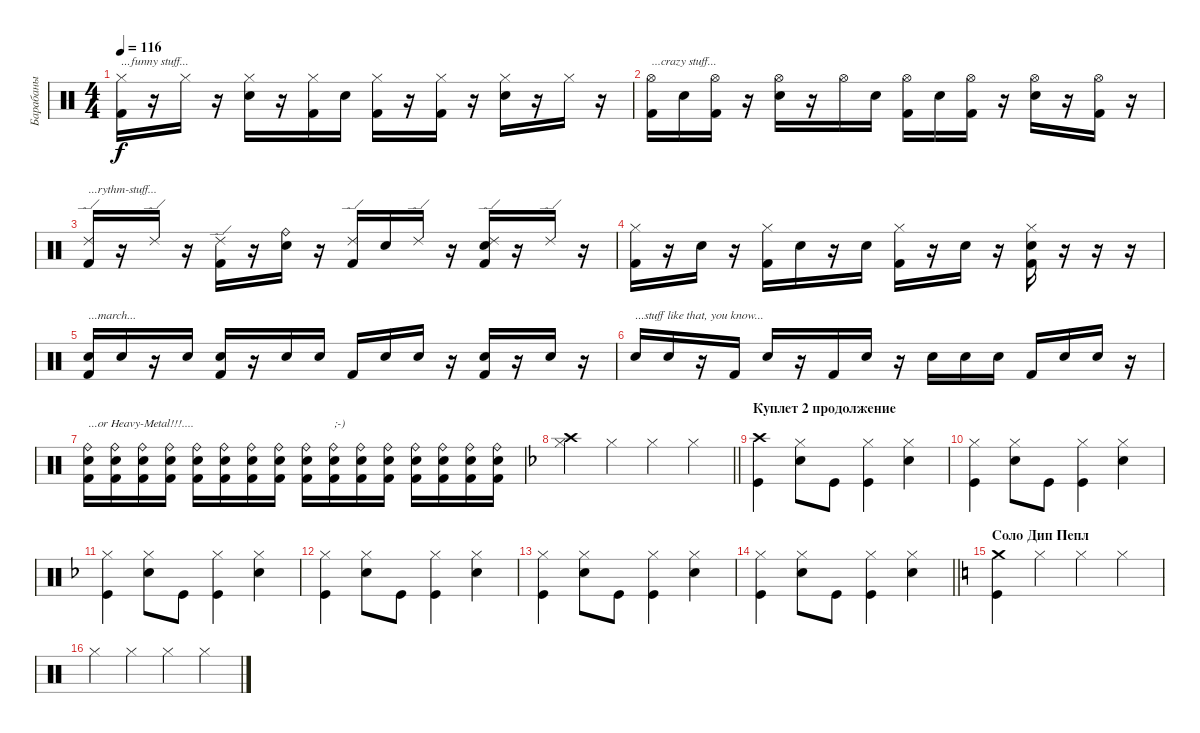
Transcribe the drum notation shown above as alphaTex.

\track ("Барабаны" "Барабаны") {instrument percussion}
\staff {score}
\articulation defaults
\ts (4 4)
\tempo 116
\clef neutral
\ks c
("Hi-Hat (closed)" "Kick (hit) 2").16{txt "...funny stuff..." dy f} r.16 "Hi-Hat (closed)".16 r.16 ("Hi-Hat (closed)" "Electric Snare (hit)").16 r.16 ("Hi-Hat (closed)" "Kick (hit) 2").16 "Electric Snare (hit)".16 ("Hi-Hat (closed)" "Kick (hit) 2").16 r.16 ("Hi-Hat (closed)" "Kick (hit) 2").16 r.16 ("Hi-Hat (closed)" "Electric Snare (hit)").16 r.16 "Hi-Hat (closed)".16 r.16 |
("Hi-Hat (open)" "Kick (hit) 2").16{txt "...crazy stuff..."} "Electric Snare (hit)".16 ("Hi-Hat (open)" "Kick (hit) 2").16 r.16 ("Hi-Hat (open)" "Electric Snare (hit)").16 r.16 "Hi-Hat (open)".16 "Electric Snare (hit)".16 ("Hi-Hat (open)" "Kick (hit) 2").16 "Electric Snare (hit)".16 ("Hi-Hat (open)" "Kick (hit) 2").16 r.16 ("Hi-Hat (open)" "Electric Snare (hit)").16 r.16 ("Hi-Hat (open)" "Kick (hit) 2").16 r.16 |
("Ride (edge) 2" "Kick (hit) 2").16{txt "...rythm-stuff..."} r.16 "Ride (edge) 2".16 r.16 ("Ride (edge) 2" "Kick (hit) 2").16 r.16 ("Ride (bell)" "Electric Snare (hit)").16 r.16 ("Ride (edge) 2" "Kick (hit) 2").16 "Electric Snare (hit)".16 "Ride (edge) 2".16 r.16 ("Ride (edge) 2" "Electric Snare (hit)" "Kick (hit) 2").16 r.16 "Ride (edge) 2".16 r.16 |
("Hi-Hat (closed)" "Kick (hit) 2").16 r.16 "Electric Snare (hit)".16 r.16 ("Hi-Hat (closed)" "Kick (hit) 2").16 "Electric Snare (hit)".16 r.16 "Electric Snare (hit)".16 ("Hi-Hat (closed)" "Kick (hit) 2").16 r.16 "Electric Snare (hit)".16 r.16 ("Hi-Hat (closed)" "Electric Snare (hit)" "Kick (hit) 2").16 r.16 r.16 r.16 |
("Electric Snare (hit)" "Kick (hit) 2").16{txt "...march..."} "Electric Snare (hit)".16 r.16 "Electric Snare (hit)".16 ("Electric Snare (hit)" "Kick (hit) 2").16 r.16 "Electric Snare (hit)".16 "Electric Snare (hit)".16 "Kick (hit) 2".16 "Electric Snare (hit)".16 "Electric Snare (hit)".16 r.16 ("Electric Snare (hit)" "Kick (hit) 2").16 r.16 "Electric Snare (hit)".16 r.16 |
"Electric Snare (hit)".16{txt "...stuff like that, you know..."} "Electric Snare (hit)".16 r.16 "Kick (hit) 2".16 "Electric Snare (hit)".16 r.16 "Kick (hit) 2".16 "Electric Snare (hit)".16 r.16 "Electric Snare (hit)".16 "Electric Snare (hit)".16 "Electric Snare (hit)".16 "Kick (hit) 2".16 "Electric Snare (hit)".16 "Electric Snare (hit)".16 r.16 |
("Ride (bell)" "Electric Snare (hit)" "Kick (hit) 2").16{txt "...or Heavy-Metal!!!...."} ("Ride (bell)" "Electric Snare (hit)" "Kick (hit) 2").16 ("Ride (bell)" "Electric Snare (hit)" "Kick (hit) 2").16 ("Ride (bell)" "Electric Snare (hit)" "Kick (hit) 2").16 ("Ride (bell)" "Electric Snare (hit)" "Kick (hit) 2").16 ("Ride (bell)" "Electric Snare (hit)" "Kick (hit) 2").16 ("Ride (bell)" "Electric Snare (hit)" "Kick (hit) 2").16 ("Ride (bell)" "Electric Snare (hit)" "Kick (hit) 2").16 ("Ride (bell)" "Electric Snare (hit)" "Kick (hit) 2").16 ("Ride (bell)" "Electric Snare (hit)" "Kick (hit) 2").16{txt ";-)"} ("Ride (bell)" "Electric Snare (hit)" "Kick (hit) 2").16 ("Ride (bell)" "Electric Snare (hit)" "Kick (hit) 2").16 ("Ride (bell)" "Electric Snare (hit)" "Kick (hit) 2").16 ("Ride (bell)" "Electric Snare (hit)" "Kick (hit) 2").16 ("Ride (bell)" "Electric Snare (hit)" "Kick (hit) 2").16 ("Ride (bell)" "Electric Snare (hit)" "Kick (hit) 2").16 |
\barLineRight lightlight
\ks dminor
("Crash high (hit)" "Hi-Hat (closed)").4 "Hi-Hat (closed)".4 "Hi-Hat (closed)".4 "Hi-Hat (closed)".4 |
\section ("" "Куплет 2 продолжение")
("Crash high (hit)" "Kick (hit)").4 ("Hi-Hat (closed)" "Snare (hit) 2").8 "Kick (hit)".8 ("Hi-Hat (closed)" "Kick (hit)").4 ("Hi-Hat (closed)" "Snare (hit) 2").4 |
("Hi-Hat (closed)" "Kick (hit)").4 ("Hi-Hat (closed)" "Snare (hit) 2").8 "Kick (hit)".8 ("Hi-Hat (closed)" "Kick (hit)").4 ("Hi-Hat (closed)" "Snare (hit) 2").4 |
("Hi-Hat (closed)" "Kick (hit)").4 ("Hi-Hat (closed)" "Snare (hit) 2").8 "Kick (hit)".8 ("Hi-Hat (closed)" "Kick (hit)").4 ("Hi-Hat (closed)" "Snare (hit) 2").4 |
("Hi-Hat (closed)" "Kick (hit)").4 ("Hi-Hat (closed)" "Snare (hit) 2").8 "Kick (hit)".8 ("Hi-Hat (closed)" "Kick (hit)").4 ("Hi-Hat (closed)" "Snare (hit) 2").4 |
("Hi-Hat (closed)" "Kick (hit)").4 ("Hi-Hat (closed)" "Snare (hit) 2").8 "Kick (hit)".8 ("Hi-Hat (closed)" "Kick (hit)").4 ("Hi-Hat (closed)" "Snare (hit) 2").4 |
\barLineRight lightlight
("Hi-Hat (closed)" "Kick (hit)").4 ("Hi-Hat (closed)" "Snare (hit) 2").8 "Kick (hit)".8 ("Hi-Hat (closed)" "Kick (hit)").4 ("Hi-Hat (closed)" "Snare (hit) 2").4 |
\section ("" "Соло Дип Пепл")
\ks c
("Crash medium (hit)" "Kick (hit)").4 "Hi-Hat (closed)".4 "Hi-Hat (closed)".4 "Hi-Hat (closed)".4 |
"Hi-Hat (closed)".4 "Hi-Hat (closed)".4 "Hi-Hat (closed)".4 "Hi-Hat (closed)".4
